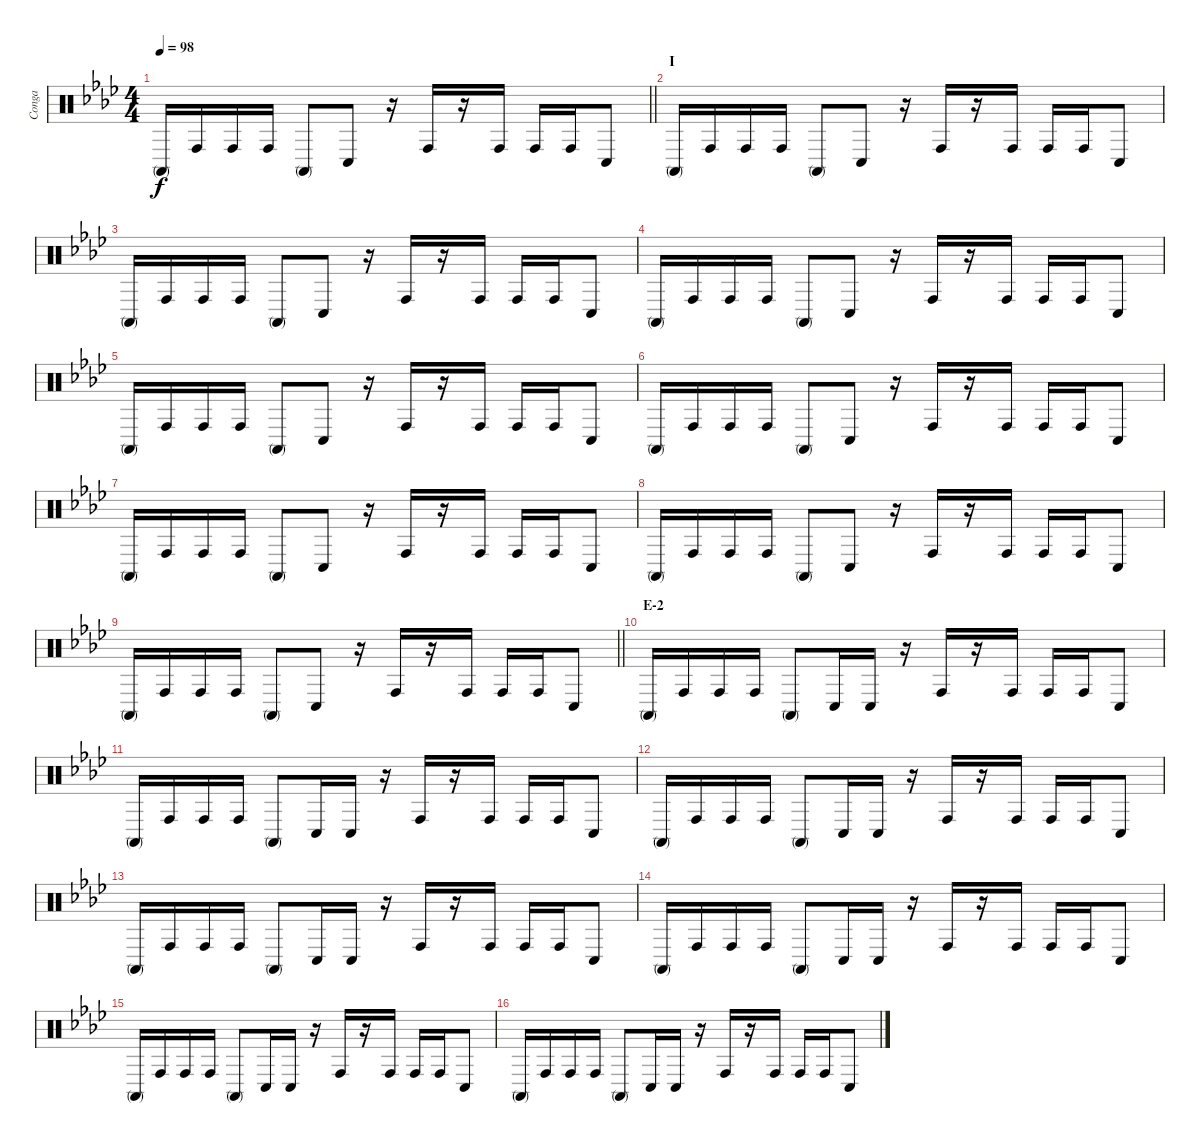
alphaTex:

\track ("Conga" "Conga") {instrument percussion}
\staff {score}
\articulation defaults
\ts (4 4)
\tempo 98
\clef neutral
\barLineRight lightlight
\ks ab "Conga high (mute)".16{dy f} "Conga high (hit)".16 "Conga high (hit)".16 "Conga high (hit)".16 "Conga high (mute)".8 "Conga low (hit)".8
r.16 "Conga high (hit)".16 r.16 "Conga high (hit)".16 "Conga high (hit)".16 "Conga high (hit)".16 "Conga low (hit)".8 |
\section ("" "I")
"Conga high (mute)".16 "Conga high (hit)".16 "Conga high (hit)".16 "Conga high (hit)".16 "Conga high (mute)".8 "Conga low (hit)".8 r.16 "Conga high (hit)".16 r.16 "Conga high (hit)".16 "Conga high (hit)".16 "Conga high (hit)".16 "Conga low (hit)".8 |
"Conga high (mute)".16 "Conga high (hit)".16 "Conga high (hit)".16 "Conga high (hit)".16 "Conga high (mute)".8 "Conga low (hit)".8 r.16 "Conga high (hit)".16 r.16 "Conga high (hit)".16 "Conga high (hit)".16 "Conga high (hit)".16 "Conga low (hit)".8 |
"Conga high (mute)".16 "Conga high (hit)".16 "Conga high (hit)".16 "Conga high (hit)".16 "Conga high (mute)".8 "Conga low (hit)".8 r.16 "Conga high (hit)".16 r.16 "Conga high (hit)".16 "Conga high (hit)".16 "Conga high (hit)".16 "Conga low (hit)".8 |
"Conga high (mute)".16 "Conga high (hit)".16 "Conga high (hit)".16 "Conga high (hit)".16 "Conga high (mute)".8 "Conga low (hit)".8 r.16 "Conga high (hit)".16 r.16 "Conga high (hit)".16 "Conga high (hit)".16 "Conga high (hit)".16 "Conga low (hit)".8 |
"Conga high (mute)".16 "Conga high (hit)".16 "Conga high (hit)".16 "Conga high (hit)".16 "Conga high (mute)".8 "Conga low (hit)".8 r.16 "Conga high (hit)".16 r.16 "Conga high (hit)".16 "Conga high (hit)".16 "Conga high (hit)".16 "Conga low (hit)".8 |
"Conga high (mute)".16 "Conga high (hit)".16 "Conga high (hit)".16 "Conga high (hit)".16 "Conga high (mute)".8 "Conga low (hit)".8 r.16 "Conga high (hit)".16 r.16 "Conga high (hit)".16 "Conga high (hit)".16 "Conga high (hit)".16 "Conga low (hit)".8 |
"Conga high (mute)".16 "Conga high (hit)".16 "Conga high (hit)".16 "Conga high (hit)".16 "Conga high (mute)".8 "Conga low (hit)".8 r.16 "Conga high (hit)".16 r.16 "Conga high (hit)".16 "Conga high (hit)".16 "Conga high (hit)".16 "Conga low (hit)".8 |
\barLineRight lightlight "Conga high (mute)".16 "Conga high (hit)".16 "Conga high (hit)".16 "Conga high (hit)".16 "Conga high (mute)".8 "Conga low (hit)".8
r.16 "Conga high (hit)".16 r.16 "Conga high (hit)".16 "Conga high (hit)".16 "Conga high (hit)".16 "Conga low (hit)".8 |
\section ("" "E-2")
"Conga high (mute)".16 "Conga high (hit)".16 "Conga high (hit)".16 "Conga high (hit)".16 "Conga high (mute)".8 "Conga low (hit)".16 "Conga low (hit)".16 r.16 "Conga high (hit)".16 r.16 "Conga high (hit)".16 "Conga high (hit)".16 "Conga high (hit)".16 "Conga low (hit)".8 |
"Conga high (mute)".16 "Conga high (hit)".16 "Conga high (hit)".16 "Conga high (hit)".16 "Conga high (mute)".8 "Conga low (hit)".16 "Conga low (hit)".16 r.16 "Conga high (hit)".16 r.16 "Conga high (hit)".16 "Conga high (hit)".16 "Conga high (hit)".16 "Conga low (hit)".8 |
"Conga high (mute)".16 "Conga high (hit)".16 "Conga high (hit)".16 "Conga high (hit)".16 "Conga high (mute)".8 "Conga low (hit)".16 "Conga low (hit)".16 r.16 "Conga high (hit)".16 r.16 "Conga high (hit)".16 "Conga high (hit)".16 "Conga high (hit)".16 "Conga low (hit)".8 |
"Conga high (mute)".16 "Conga high (hit)".16 "Conga high (hit)".16 "Conga high (hit)".16 "Conga high (mute)".8 "Conga low (hit)".16 "Conga low (hit)".16 r.16 "Conga high (hit)".16 r.16 "Conga high (hit)".16 "Conga high (hit)".16 "Conga high (hit)".16 "Conga low (hit)".8 |
"Conga high (mute)".16 "Conga high (hit)".16 "Conga high (hit)".16 "Conga high (hit)".16 "Conga high (mute)".8 "Conga low (hit)".16 "Conga low (hit)".16 r.16 "Conga high (hit)".16 r.16 "Conga high (hit)".16 "Conga high (hit)".16 "Conga high (hit)".16 "Conga low (hit)".8 |
"Conga high (mute)".16 "Conga high (hit)".16 "Conga high (hit)".16 "Conga high (hit)".16 "Conga high (mute)".8 "Conga low (hit)".16 "Conga low (hit)".16 r.16 "Conga high (hit)".16 r.16 "Conga high (hit)".16 "Conga high (hit)".16 "Conga high (hit)".16 "Conga low (hit)".8 |
"Conga high (mute)".16 "Conga high (hit)".16 "Conga high (hit)".16 "Conga high (hit)".16 "Conga high (mute)".8 "Conga low (hit)".16 "Conga low (hit)".16 r.16 "Conga high (hit)".16 r.16 "Conga high (hit)".16 "Conga high (hit)".16 "Conga high (hit)".16 "Conga low (hit)".8
